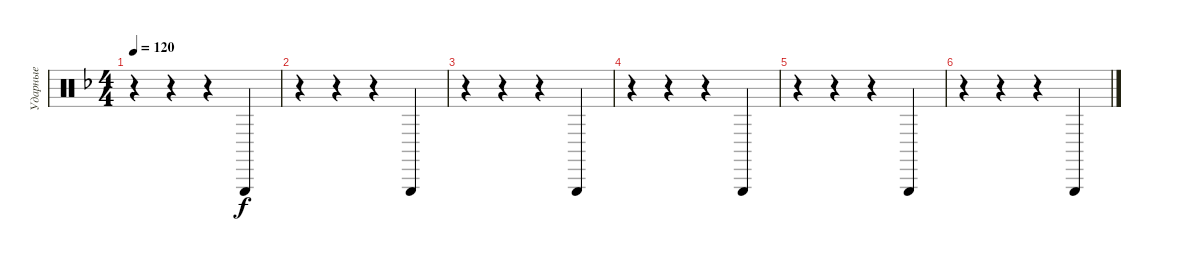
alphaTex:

\track ("Ударные" "Ударные") {instrument percussion}
\staff {score}
\articulation defaults
\ts (4 4)
\tempo 120
\clef neutral
\ks dminor
r.4{dy f} r.4 r.4 "Triangle (hit)".4 |
r.4 r.4 r.4 "Triangle (hit)".4 |
r.4 r.4 r.4 "Triangle (hit)".4 |
r.4 r.4 r.4 "Triangle (hit)".4 |
r.4 r.4 r.4 "Triangle (hit)".4 |
r.4 r.4 r.4 "Triangle (hit)".4
